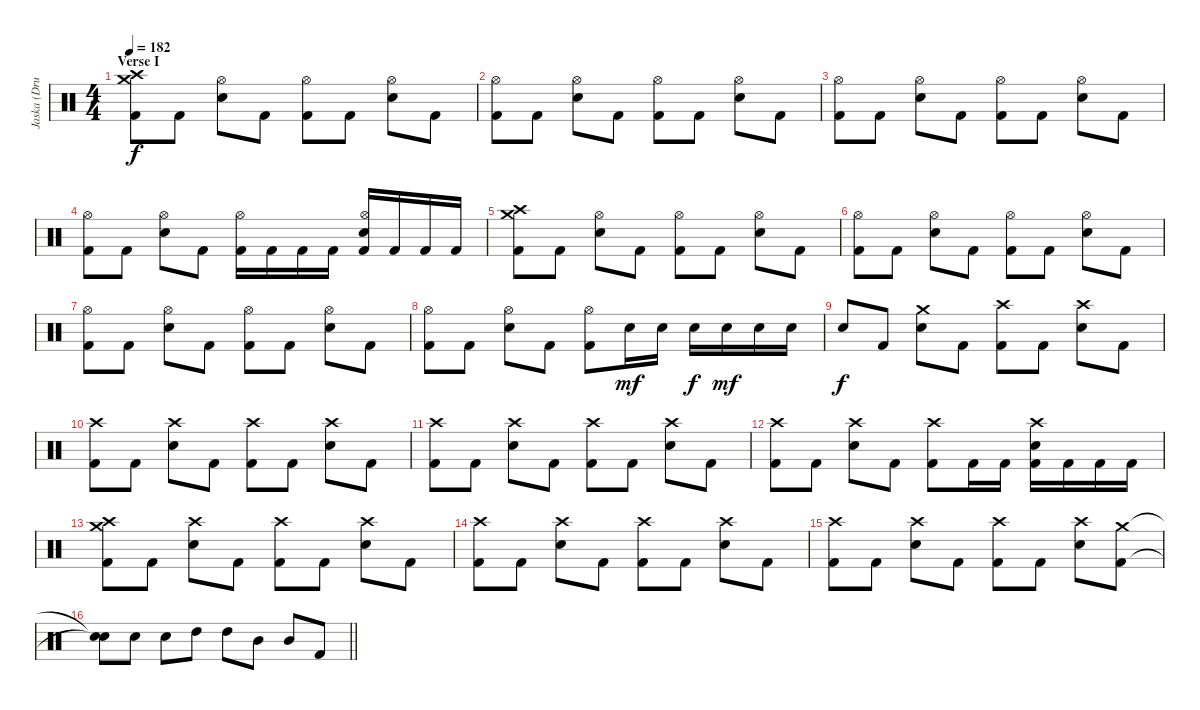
\track ("Jaska (Drums)" "Jaska (Dru") {instrument percussion}
\staff {score}
\articulation defaults
\ts (4 4)
\section ("" "Verse I")
\tempo 182
\clef neutral
\ks c
("Crash medium (hit)" "Crash high (hit)" "Kick (hit) 2").8{dy f} "Kick (hit) 2".8 ("Hi-Hat (open)" "Electric Snare (hit)").8 "Kick (hit) 2".8 ("Hi-Hat (open)" "Kick (hit) 2").8 "Kick (hit) 2".8 ("Hi-Hat (open)" "Electric Snare (hit)").8 "Kick (hit) 2".8 |
("Hi-Hat (open)" "Kick (hit) 2").8 "Kick (hit) 2".8 ("Hi-Hat (open)" "Electric Snare (hit)").8 "Kick (hit) 2".8 ("Hi-Hat (open)" "Kick (hit) 2").8 "Kick (hit) 2".8 ("Hi-Hat (open)" "Electric Snare (hit)").8 "Kick (hit) 2".8 |
("Hi-Hat (open)" "Kick (hit) 2").8 "Kick (hit) 2".8 ("Hi-Hat (open)" "Electric Snare (hit)").8 "Kick (hit) 2".8 ("Hi-Hat (open)" "Kick (hit) 2").8 "Kick (hit) 2".8 ("Hi-Hat (open)" "Electric Snare (hit)").8 "Kick (hit) 2".8 |
("Hi-Hat (open)" "Kick (hit) 2").8 "Kick (hit) 2".8 ("Hi-Hat (open)" "Electric Snare (hit)").8 "Kick (hit) 2".8 ("Hi-Hat (open)" "Kick (hit) 2").16 "Kick (hit) 2".16 "Kick (hit) 2".16 "Kick (hit) 2".16 ("Hi-Hat (open)" "Electric Snare (hit)" "Kick (hit) 2").16 "Kick (hit) 2".16 "Kick (hit) 2".16 "Kick (hit) 2".16 |
("Crash medium (hit)" "Crash high (hit)" "Kick (hit) 2").8 "Kick (hit) 2".8 ("Hi-Hat (open)" "Electric Snare (hit)").8 "Kick (hit) 2".8 ("Hi-Hat (open)" "Kick (hit) 2").8 "Kick (hit) 2".8 ("Hi-Hat (open)" "Electric Snare (hit)").8 "Kick (hit) 2".8 |
("Hi-Hat (open)" "Kick (hit) 2").8 "Kick (hit) 2".8 ("Hi-Hat (open)" "Electric Snare (hit)").8 "Kick (hit) 2".8 ("Hi-Hat (open)" "Kick (hit) 2").8 "Kick (hit) 2".8 ("Hi-Hat (open)" "Electric Snare (hit)").8 "Kick (hit) 2".8 |
("Hi-Hat (open)" "Kick (hit) 2").8 "Kick (hit) 2".8 ("Hi-Hat (open)" "Electric Snare (hit)").8 "Kick (hit) 2".8 ("Hi-Hat (open)" "Kick (hit) 2").8 "Kick (hit) 2".8 ("Hi-Hat (open)" "Electric Snare (hit)").8 "Kick (hit) 2".8 |
("Hi-Hat (open)" "Kick (hit) 2").8 "Kick (hit) 2".8 ("Hi-Hat (open)" "Electric Snare (hit)").8 "Kick (hit) 2".8 ("Hi-Hat (open)" "Kick (hit) 2").8 "Electric Snare (hit)".16{dy mf} "Electric Snare (hit)".16 "Electric Snare (hit)".16{dy f} "Electric Snare (hit)".16{dy mf} "Electric Snare (hit)".16 "Electric Snare (hit)".16 |
"Electric Snare (hit)".8{dy f} "Kick (hit) 2".8 ("Crash medium (hit)" "Electric Snare (hit)").8 "Kick (hit) 2".8 ("Crash high (hit)" "Kick (hit) 2").8 "Kick (hit) 2".8 ("Crash high (hit)" "Electric Snare (hit)").8 "Kick (hit) 2".8 |
("Crash high (hit)" "Kick (hit) 2").8 "Kick (hit) 2".8 ("Crash high (hit)" "Electric Snare (hit)").8 "Kick (hit) 2".8 ("Crash high (hit)" "Kick (hit) 2").8 "Kick (hit) 2".8 ("Crash high (hit)" "Electric Snare (hit)").8 "Kick (hit) 2".8 |
("Crash high (hit)" "Kick (hit) 2").8 "Kick (hit) 2".8 ("Crash high (hit)" "Electric Snare (hit)").8 "Kick (hit) 2".8 ("Crash high (hit)" "Kick (hit) 2").8 "Kick (hit) 2".8 ("Crash high (hit)" "Electric Snare (hit)").8 "Kick (hit) 2".8 |
("Crash high (hit)" "Kick (hit) 2").8 "Kick (hit) 2".8 ("Crash high (hit)" "Electric Snare (hit)").8 "Kick (hit) 2".8 ("Crash high (hit)" "Kick (hit) 2").8 "Kick (hit) 2".16 "Kick (hit) 2".16 ("Crash high (hit)" "Electric Snare (hit)" "Kick (hit) 2").16 "Kick (hit) 2".16 "Kick (hit) 2".16 "Kick (hit) 2".16 |
("Crash medium (hit)" "Crash high (hit)" "Kick (hit) 2").8 "Kick (hit) 2".8 ("Crash high (hit)" "Electric Snare (hit)").8 "Kick (hit) 2".8 ("Crash high (hit)" "Kick (hit) 2").8 "Kick (hit) 2".8 ("Crash high (hit)" "Electric Snare (hit)").8 "Kick (hit) 2".8 |
("Crash high (hit)" "Kick (hit) 2").8 "Kick (hit) 2".8 ("Crash high (hit)" "Electric Snare (hit)").8 "Kick (hit) 2".8 ("Crash high (hit)" "Kick (hit) 2").8 "Kick (hit) 2".8 ("Crash high (hit)" "Electric Snare (hit)").8 "Kick (hit) 2".8 |
("Crash high (hit)" "Kick (hit) 2").8 "Kick (hit) 2".8 ("Crash high (hit)" "Electric Snare (hit)").8 "Kick (hit) 2".8 ("Crash high (hit)" "Kick (hit) 2").8 "Kick (hit) 2".8 ("Crash high (hit)" "Electric Snare (hit)").8 ("Crash medium (hit)" "Kick (hit) 2").8 |
\barLineRight lightlight
("Snare (hit)"{t} "Snare (hit)"{t}).8 "Electric Snare (hit)".8 "Electric Snare (hit)".8 "High Tom (hit)".8 "High Tom (hit)".8 "Mid Tom (hit)".8 "Mid Tom (hit)".8 "Kick (hit) 2".8
